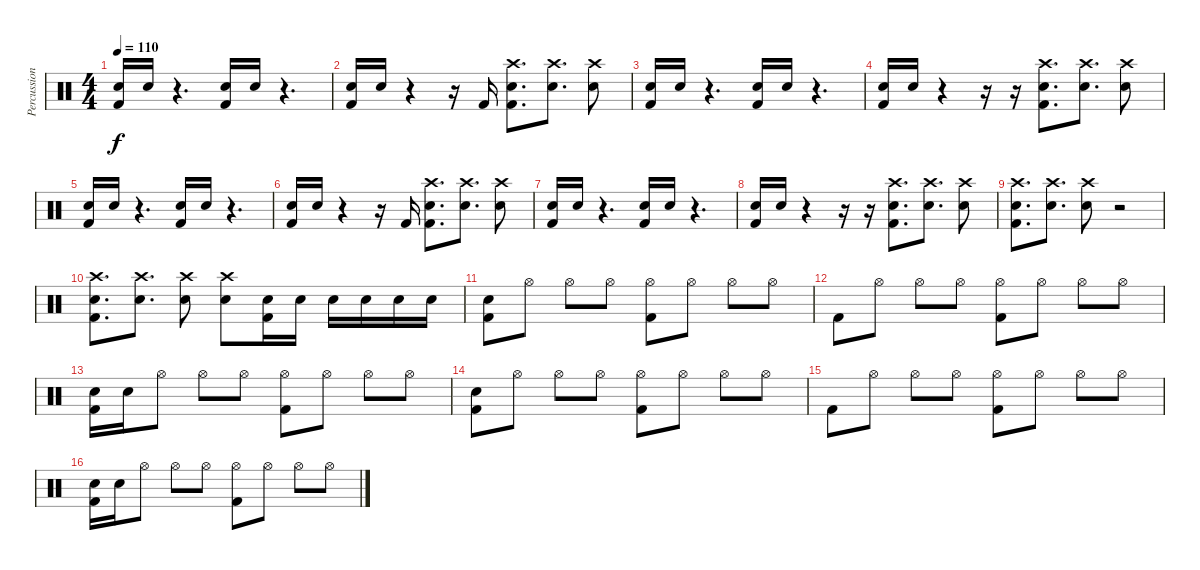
\track ("Percussion" "Percussion") {instrument percussion}
\staff {score}
\articulation defaults
\ts (4 4)
\tempo 110
\clef neutral
\ks c
("Electric Snare (hit)" "Kick (hit) 2").16{dy f} "Electric Snare (hit)".16 r.4{d} ("Electric Snare (hit)" "Kick (hit) 2").16 "Electric Snare (hit)".16 r.4{d} |
("Electric Snare (hit)" "Kick (hit) 2").16 "Electric Snare (hit)".16 r.4 r.16 "Kick (hit) 2".16 ("Crash high (hit)" "Electric Snare (hit)" "Kick (hit) 2").8{d} ("Crash high (hit)" "Electric Snare (hit)").8{d} ("Crash high (hit)" "Electric Snare (hit)").8 |
("Electric Snare (hit)" "Kick (hit) 2").16 "Electric Snare (hit)".16 r.4{d} ("Electric Snare (hit)" "Kick (hit) 2").16 "Electric Snare (hit)".16 r.4{d} |
("Electric Snare (hit)" "Kick (hit) 2").16 "Electric Snare (hit)".16 r.4 r.16 r.16 ("Crash high (hit)" "Electric Snare (hit)" "Kick (hit) 2").8{d} ("Crash high (hit)" "Electric Snare (hit)").8{d} ("Crash high (hit)" "Electric Snare (hit)").8 |
("Electric Snare (hit)" "Kick (hit) 2").16 "Electric Snare (hit)".16 r.4{d} ("Electric Snare (hit)" "Kick (hit) 2").16 "Electric Snare (hit)".16 r.4{d} |
("Electric Snare (hit)" "Kick (hit) 2").16 "Electric Snare (hit)".16 r.4 r.16 "Kick (hit) 2".16 ("Crash high (hit)" "Electric Snare (hit)" "Kick (hit) 2").8{d} ("Crash high (hit)" "Electric Snare (hit)").8{d} ("Crash high (hit)" "Electric Snare (hit)").8 |
("Electric Snare (hit)" "Kick (hit) 2").16 "Electric Snare (hit)".16 r.4{d} ("Electric Snare (hit)" "Kick (hit) 2").16 "Electric Snare (hit)".16 r.4{d} |
("Electric Snare (hit)" "Kick (hit) 2").16 "Electric Snare (hit)".16 r.4 r.16 r.16 ("Crash high (hit)" "Electric Snare (hit)" "Kick (hit) 2").8{d} ("Crash high (hit)" "Electric Snare (hit)").8{d} ("Crash high (hit)" "Electric Snare (hit)").8 |
("Crash high (hit)" "Electric Snare (hit)" "Kick (hit) 2").8{d} ("Crash high (hit)" "Electric Snare (hit)").8{d} ("Crash high (hit)" "Electric Snare (hit)").8 r.2 |
("Crash high (hit)" "Electric Snare (hit)" "Kick (hit) 2").8{d} ("Crash high (hit)" "Electric Snare (hit)").8{d} ("Crash high (hit)" "Electric Snare (hit)").8 ("Crash high (hit)" "Electric Snare (hit)").8 ("Electric Snare (hit)" "Kick (hit) 2").16 "Electric Snare (hit)".16 "Electric Snare (hit)".16 "Electric Snare (hit)".16 "Electric Snare (hit)".16 "Electric Snare (hit)".16 |
("Electric Snare (hit)" "Kick (hit) 2").8 "Hi-Hat (open)".8 "Hi-Hat (open)".8 "Hi-Hat (open)".8 ("Hi-Hat (open)" "Kick (hit) 2").8 "Hi-Hat (open)".8 "Hi-Hat (open)".8 "Hi-Hat (open)".8 |
"Kick (hit) 2".8 "Hi-Hat (open)".8 "Hi-Hat (open)".8 "Hi-Hat (open)".8 ("Hi-Hat (open)" "Kick (hit) 2").8 "Hi-Hat (open)".8 "Hi-Hat (open)".8 "Hi-Hat (open)".8 |
("Electric Snare (hit)" "Kick (hit) 2").16 "Electric Snare (hit)".16 "Hi-Hat (open)".8 "Hi-Hat (open)".8 "Hi-Hat (open)".8 ("Hi-Hat (open)" "Kick (hit) 2").8 "Hi-Hat (open)".8 "Hi-Hat (open)".8 "Hi-Hat (open)".8 |
("Electric Snare (hit)" "Kick (hit) 2").8 "Hi-Hat (open)".8 "Hi-Hat (open)".8 "Hi-Hat (open)".8 ("Hi-Hat (open)" "Kick (hit) 2").8 "Hi-Hat (open)".8 "Hi-Hat (open)".8 "Hi-Hat (open)".8 |
"Kick (hit) 2".8 "Hi-Hat (open)".8 "Hi-Hat (open)".8 "Hi-Hat (open)".8 ("Hi-Hat (open)" "Kick (hit) 2").8 "Hi-Hat (open)".8 "Hi-Hat (open)".8 "Hi-Hat (open)".8 |
("Electric Snare (hit)" "Kick (hit) 2").16 "Electric Snare (hit)".16 "Hi-Hat (open)".8 "Hi-Hat (open)".8 "Hi-Hat (open)".8 ("Hi-Hat (open)" "Kick (hit) 2").8 "Hi-Hat (open)".8 "Hi-Hat (open)".8 "Hi-Hat (open)".8
